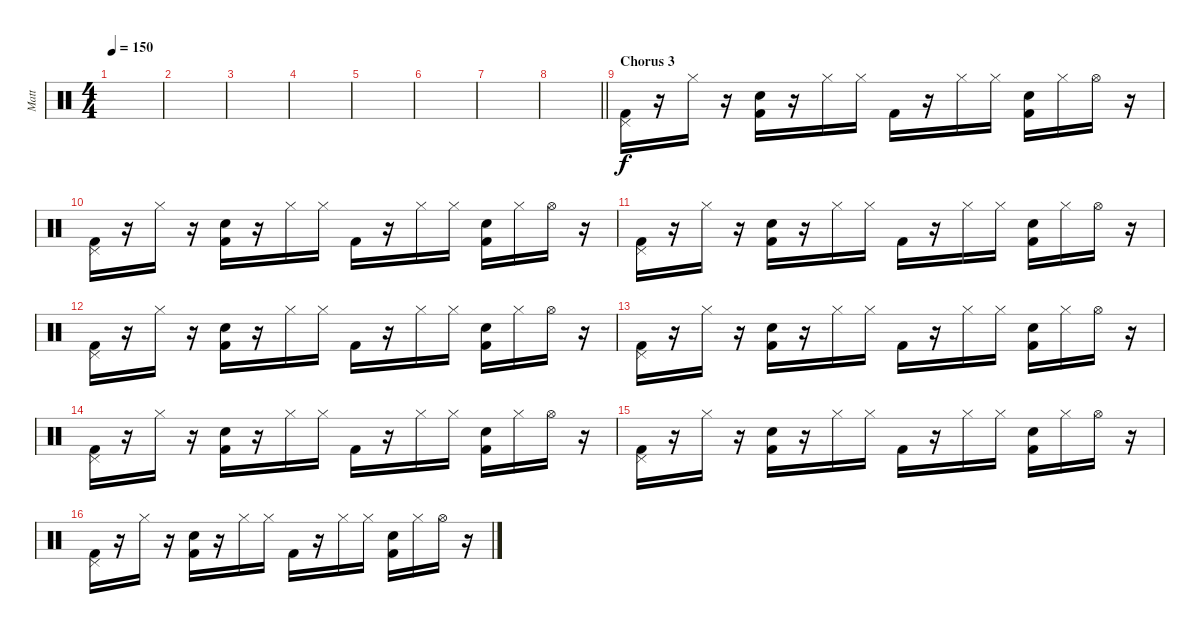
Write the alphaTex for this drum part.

\track ("Matt" "Matt") {instrument percussion}
\staff {score}
\articulation defaults
\ts (4 4)
\tempo 150
\clef neutral
\ks c
|
|
|
|
|
|
|
\barLineRight lightlight
|
\section ("" "Chorus 3")
("Pedal Hi-Hat (hit)" "Kick (hit) 2").16 r.16 "Hi-Hat (closed)".16 r.16 ("Snare (hit) 2" "Kick (hit) 2").16 r.16 "Hi-Hat (closed)".16 "Hi-Hat (closed)".16 "Kick (hit) 2".16 r.16 "Hi-Hat (closed)".16 "Hi-Hat (closed)".16 ("Snare (hit) 2" "Kick (hit) 2").16 "Hi-Hat (closed)".16 "Hi-Hat (open)".16 r.16 |
("Pedal Hi-Hat (hit)" "Kick (hit) 2").16 r.16 "Hi-Hat (closed)".16 r.16 ("Snare (hit) 2" "Kick (hit) 2").16 r.16 "Hi-Hat (closed)".16 "Hi-Hat (closed)".16 "Kick (hit) 2".16 r.16 "Hi-Hat (closed)".16 "Hi-Hat (closed)".16 ("Snare (hit) 2" "Kick (hit) 2").16 "Hi-Hat (closed)".16 "Hi-Hat (open)".16 r.16 |
("Pedal Hi-Hat (hit)" "Kick (hit) 2").16 r.16 "Hi-Hat (closed)".16 r.16 ("Snare (hit) 2" "Kick (hit) 2").16 r.16 "Hi-Hat (closed)".16 "Hi-Hat (closed)".16 "Kick (hit) 2".16 r.16 "Hi-Hat (closed)".16 "Hi-Hat (closed)".16 ("Snare (hit) 2" "Kick (hit) 2").16 "Hi-Hat (closed)".16 "Hi-Hat (open)".16 r.16 |
("Pedal Hi-Hat (hit)" "Kick (hit) 2").16 r.16 "Hi-Hat (closed)".16 r.16 ("Snare (hit) 2" "Kick (hit) 2").16 r.16 "Hi-Hat (closed)".16 "Hi-Hat (closed)".16 "Kick (hit) 2".16 r.16 "Hi-Hat (closed)".16 "Hi-Hat (closed)".16 ("Snare (hit) 2" "Kick (hit) 2").16 "Hi-Hat (closed)".16 "Hi-Hat (open)".16 r.16 |
("Pedal Hi-Hat (hit)" "Kick (hit) 2").16 r.16 "Hi-Hat (closed)".16 r.16 ("Snare (hit) 2" "Kick (hit) 2").16 r.16 "Hi-Hat (closed)".16 "Hi-Hat (closed)".16 "Kick (hit) 2".16 r.16 "Hi-Hat (closed)".16 "Hi-Hat (closed)".16 ("Snare (hit) 2" "Kick (hit) 2").16 "Hi-Hat (closed)".16 "Hi-Hat (open)".16 r.16 |
("Pedal Hi-Hat (hit)" "Kick (hit) 2").16 r.16 "Hi-Hat (closed)".16 r.16 ("Snare (hit) 2" "Kick (hit) 2").16 r.16 "Hi-Hat (closed)".16 "Hi-Hat (closed)".16 "Kick (hit) 2".16 r.16 "Hi-Hat (closed)".16 "Hi-Hat (closed)".16 ("Snare (hit) 2" "Kick (hit) 2").16 "Hi-Hat (closed)".16 "Hi-Hat (open)".16 r.16 |
("Pedal Hi-Hat (hit)" "Kick (hit) 2").16 r.16 "Hi-Hat (closed)".16 r.16 ("Snare (hit) 2" "Kick (hit) 2").16 r.16 "Hi-Hat (closed)".16 "Hi-Hat (closed)".16 "Kick (hit) 2".16 r.16 "Hi-Hat (closed)".16 "Hi-Hat (closed)".16 ("Snare (hit) 2" "Kick (hit) 2").16 "Hi-Hat (closed)".16 "Hi-Hat (open)".16 r.16 |
("Pedal Hi-Hat (hit)" "Kick (hit) 2").16 r.16 "Hi-Hat (closed)".16 r.16 ("Snare (hit) 2" "Kick (hit) 2").16 r.16 "Hi-Hat (closed)".16 "Hi-Hat (closed)".16 "Kick (hit) 2".16 r.16 "Hi-Hat (closed)".16 "Hi-Hat (closed)".16 ("Snare (hit) 2" "Kick (hit) 2").16 "Hi-Hat (closed)".16 "Hi-Hat (open)".16 r.16
